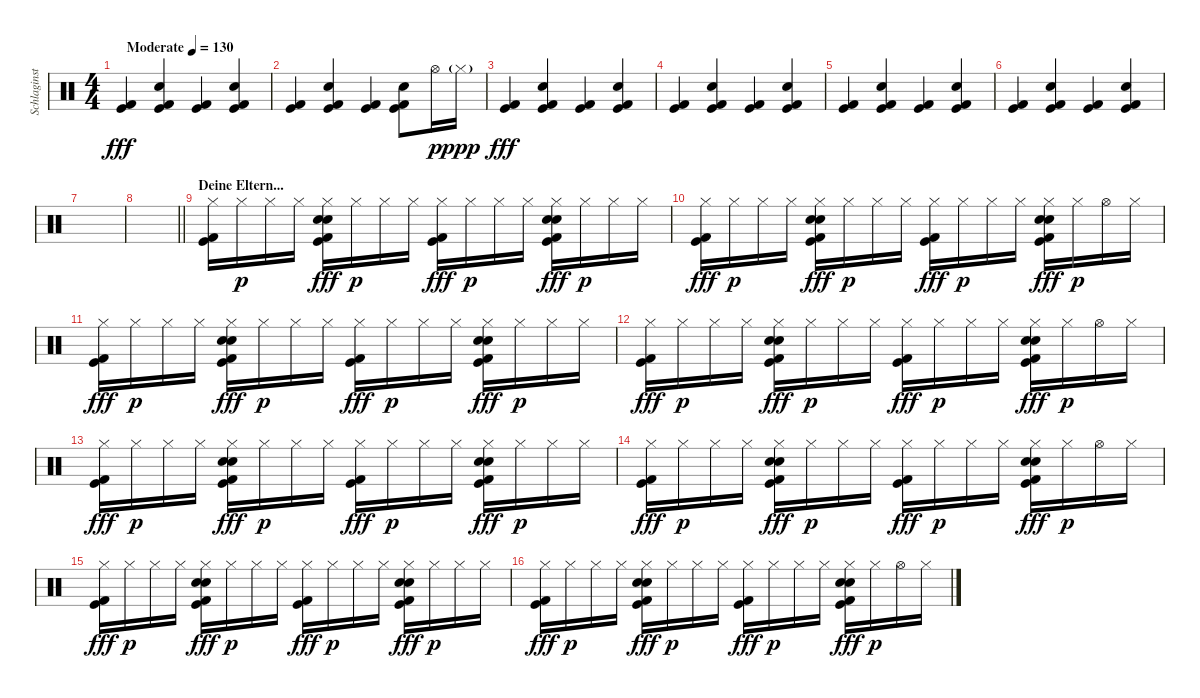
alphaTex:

\track ("Schlaginstrumente - Auswahl" "Schlaginst") {instrument percussion}
\staff {score}
\articulation defaults
\ts (4 4)
\tempo (130 "Moderate")
\clef neutral
\ks c
("Kick (hit) 2" "Kick (hit)").4{dy fff} ("Snare (hit) 2" "Kick (hit) 2" "Kick (hit)").4 ("Kick (hit) 2" "Kick (hit)").4 ("Snare (hit) 2" "Kick (hit) 2" "Kick (hit)").4 |
("Kick (hit) 2" "Kick (hit)").4 ("Snare (hit) 2" "Kick (hit) 2" "Kick (hit)").4 ("Kick (hit) 2" "Kick (hit)").4 ("Snare (hit) 2" "Kick (hit) 2" "Kick (hit)").8 "Hi-Hat (open)".16{dy p} "Hi-Hat (closed)"{g}.16{dy ppp} |
("Kick (hit) 2" "Kick (hit)").4{dy fff} ("Snare (hit) 2" "Kick (hit) 2" "Kick (hit)").4 ("Kick (hit) 2" "Kick (hit)").4 ("Snare (hit) 2" "Kick (hit) 2" "Kick (hit)").4 |
("Kick (hit) 2" "Kick (hit)").4 ("Snare (hit) 2" "Kick (hit) 2" "Kick (hit)").4 ("Kick (hit) 2" "Kick (hit)").4 ("Snare (hit) 2" "Kick (hit) 2" "Kick (hit)").4 |
("Kick (hit) 2" "Kick (hit)").4 ("Snare (hit) 2" "Kick (hit) 2" "Kick (hit)").4 ("Kick (hit) 2" "Kick (hit)").4 ("Snare (hit) 2" "Kick (hit) 2" "Kick (hit)").4 |
("Kick (hit) 2" "Kick (hit)").4 ("Snare (hit) 2" "Kick (hit) 2" "Kick (hit)").4 ("Kick (hit) 2" "Kick (hit)").4 ("Snare (hit) 2" "Kick (hit) 2" "Kick (hit)").4 |
|
\barLineRight lightlight
|
\section ("" "Deine Eltern...")
("Hi-Hat (closed)" "Kick (hit) 2" "Kick (hit)").16 "Hi-Hat (closed)".16{dy p} "Hi-Hat (closed)".16 "Hi-Hat (closed)".16 ("Electric Snare (hit)" "Hi-Hat (closed)" "Snare (hit) 2" "Kick (hit) 2" "Kick (hit)").16{dy fff} "Hi-Hat (closed)".16{dy p} "Hi-Hat (closed)".16 "Hi-Hat (closed)".16 ("Hi-Hat (closed)" "Kick (hit) 2" "Kick (hit)").16{dy fff} "Hi-Hat (closed)".16{dy p} "Hi-Hat (closed)".16 "Hi-Hat (closed)".16 ("Electric Snare (hit)" "Hi-Hat (closed)" "Snare (hit) 2" "Kick (hit) 2" "Kick (hit)").16{dy fff} "Hi-Hat (closed)".16{dy p} "Hi-Hat (closed)".16 "Hi-Hat (closed)".16 |
("Hi-Hat (closed)" "Kick (hit) 2" "Kick (hit)").16{dy fff} "Hi-Hat (closed)".16{dy p} "Hi-Hat (closed)".16 "Hi-Hat (closed)".16 ("Electric Snare (hit)" "Hi-Hat (closed)" "Snare (hit) 2" "Kick (hit) 2" "Kick (hit)").16{dy fff} "Hi-Hat (closed)".16{dy p} "Hi-Hat (closed)".16 "Hi-Hat (closed)".16 ("Hi-Hat (closed)" "Kick (hit) 2" "Kick (hit)").16{dy fff} "Hi-Hat (closed)".16{dy p} "Hi-Hat (closed)".16 "Hi-Hat (closed)".16 ("Electric Snare (hit)" "Hi-Hat (closed)" "Snare (hit) 2" "Kick (hit) 2" "Kick (hit)").16{dy fff} "Hi-Hat (closed)".16{dy p} "Hi-Hat (open)".16 "Hi-Hat (closed)".16 |
("Hi-Hat (closed)" "Kick (hit) 2" "Kick (hit)").16{dy fff} "Hi-Hat (closed)".16{dy p} "Hi-Hat (closed)".16 "Hi-Hat (closed)".16 ("Electric Snare (hit)" "Hi-Hat (closed)" "Snare (hit) 2" "Kick (hit) 2" "Kick (hit)").16{dy fff} "Hi-Hat (closed)".16{dy p} "Hi-Hat (closed)".16 "Hi-Hat (closed)".16 ("Hi-Hat (closed)" "Kick (hit) 2" "Kick (hit)").16{dy fff} "Hi-Hat (closed)".16{dy p} "Hi-Hat (closed)".16 "Hi-Hat (closed)".16 ("Electric Snare (hit)" "Hi-Hat (closed)" "Snare (hit) 2" "Kick (hit) 2" "Kick (hit)").16{dy fff} "Hi-Hat (closed)".16{dy p} "Hi-Hat (closed)".16 "Hi-Hat (closed)".16 |
("Hi-Hat (closed)" "Kick (hit) 2" "Kick (hit)").16{dy fff} "Hi-Hat (closed)".16{dy p} "Hi-Hat (closed)".16 "Hi-Hat (closed)".16 ("Electric Snare (hit)" "Hi-Hat (closed)" "Snare (hit) 2" "Kick (hit) 2" "Kick (hit)").16{dy fff} "Hi-Hat (closed)".16{dy p} "Hi-Hat (closed)".16 "Hi-Hat (closed)".16 ("Hi-Hat (closed)" "Kick (hit) 2" "Kick (hit)").16{dy fff} "Hi-Hat (closed)".16{dy p} "Hi-Hat (closed)".16 "Hi-Hat (closed)".16 ("Electric Snare (hit)" "Hi-Hat (closed)" "Snare (hit) 2" "Kick (hit) 2" "Kick (hit)").16{dy fff} "Hi-Hat (closed)".16{dy p} "Hi-Hat (open)".16 "Hi-Hat (closed)".16 |
("Hi-Hat (closed)" "Kick (hit) 2" "Kick (hit)").16{dy fff} "Hi-Hat (closed)".16{dy p} "Hi-Hat (closed)".16 "Hi-Hat (closed)".16 ("Electric Snare (hit)" "Hi-Hat (closed)" "Snare (hit) 2" "Kick (hit) 2" "Kick (hit)").16{dy fff} "Hi-Hat (closed)".16{dy p} "Hi-Hat (closed)".16 "Hi-Hat (closed)".16 ("Hi-Hat (closed)" "Kick (hit) 2" "Kick (hit)").16{dy fff} "Hi-Hat (closed)".16{dy p} "Hi-Hat (closed)".16 "Hi-Hat (closed)".16 ("Electric Snare (hit)" "Hi-Hat (closed)" "Snare (hit) 2" "Kick (hit) 2" "Kick (hit)").16{dy fff} "Hi-Hat (closed)".16{dy p} "Hi-Hat (closed)".16 "Hi-Hat (closed)".16 |
("Hi-Hat (closed)" "Kick (hit) 2" "Kick (hit)").16{dy fff} "Hi-Hat (closed)".16{dy p} "Hi-Hat (closed)".16 "Hi-Hat (closed)".16 ("Electric Snare (hit)" "Hi-Hat (closed)" "Snare (hit) 2" "Kick (hit) 2" "Kick (hit)").16{dy fff} "Hi-Hat (closed)".16{dy p} "Hi-Hat (closed)".16 "Hi-Hat (closed)".16 ("Hi-Hat (closed)" "Kick (hit) 2" "Kick (hit)").16{dy fff} "Hi-Hat (closed)".16{dy p} "Hi-Hat (closed)".16 "Hi-Hat (closed)".16 ("Electric Snare (hit)" "Hi-Hat (closed)" "Snare (hit) 2" "Kick (hit) 2" "Kick (hit)").16{dy fff} "Hi-Hat (closed)".16{dy p} "Hi-Hat (open)".16 "Hi-Hat (closed)".16 |
("Hi-Hat (closed)" "Kick (hit) 2" "Kick (hit)").16{dy fff} "Hi-Hat (closed)".16{dy p} "Hi-Hat (closed)".16 "Hi-Hat (closed)".16 ("Electric Snare (hit)" "Hi-Hat (closed)" "Snare (hit) 2" "Kick (hit) 2" "Kick (hit)").16{dy fff} "Hi-Hat (closed)".16{dy p} "Hi-Hat (closed)".16 "Hi-Hat (closed)".16 ("Hi-Hat (closed)" "Kick (hit) 2" "Kick (hit)").16{dy fff} "Hi-Hat (closed)".16{dy p} "Hi-Hat (closed)".16 "Hi-Hat (closed)".16 ("Electric Snare (hit)" "Hi-Hat (closed)" "Snare (hit) 2" "Kick (hit) 2" "Kick (hit)").16{dy fff} "Hi-Hat (closed)".16{dy p} "Hi-Hat (closed)".16 "Hi-Hat (closed)".16 |
("Hi-Hat (closed)" "Kick (hit) 2" "Kick (hit)").16{dy fff} "Hi-Hat (closed)".16{dy p} "Hi-Hat (closed)".16 "Hi-Hat (closed)".16 ("Electric Snare (hit)" "Hi-Hat (closed)" "Snare (hit) 2" "Kick (hit) 2" "Kick (hit)").16{dy fff} "Hi-Hat (closed)".16{dy p} "Hi-Hat (closed)".16 "Hi-Hat (closed)".16 ("Hi-Hat (closed)" "Kick (hit) 2" "Kick (hit)").16{dy fff} "Hi-Hat (closed)".16{dy p} "Hi-Hat (closed)".16 "Hi-Hat (closed)".16 ("Electric Snare (hit)" "Hi-Hat (closed)" "Snare (hit) 2" "Kick (hit) 2" "Kick (hit)").16{dy fff} "Hi-Hat (closed)".16{dy p} "Hi-Hat (open)".16 "Hi-Hat (closed)".16
